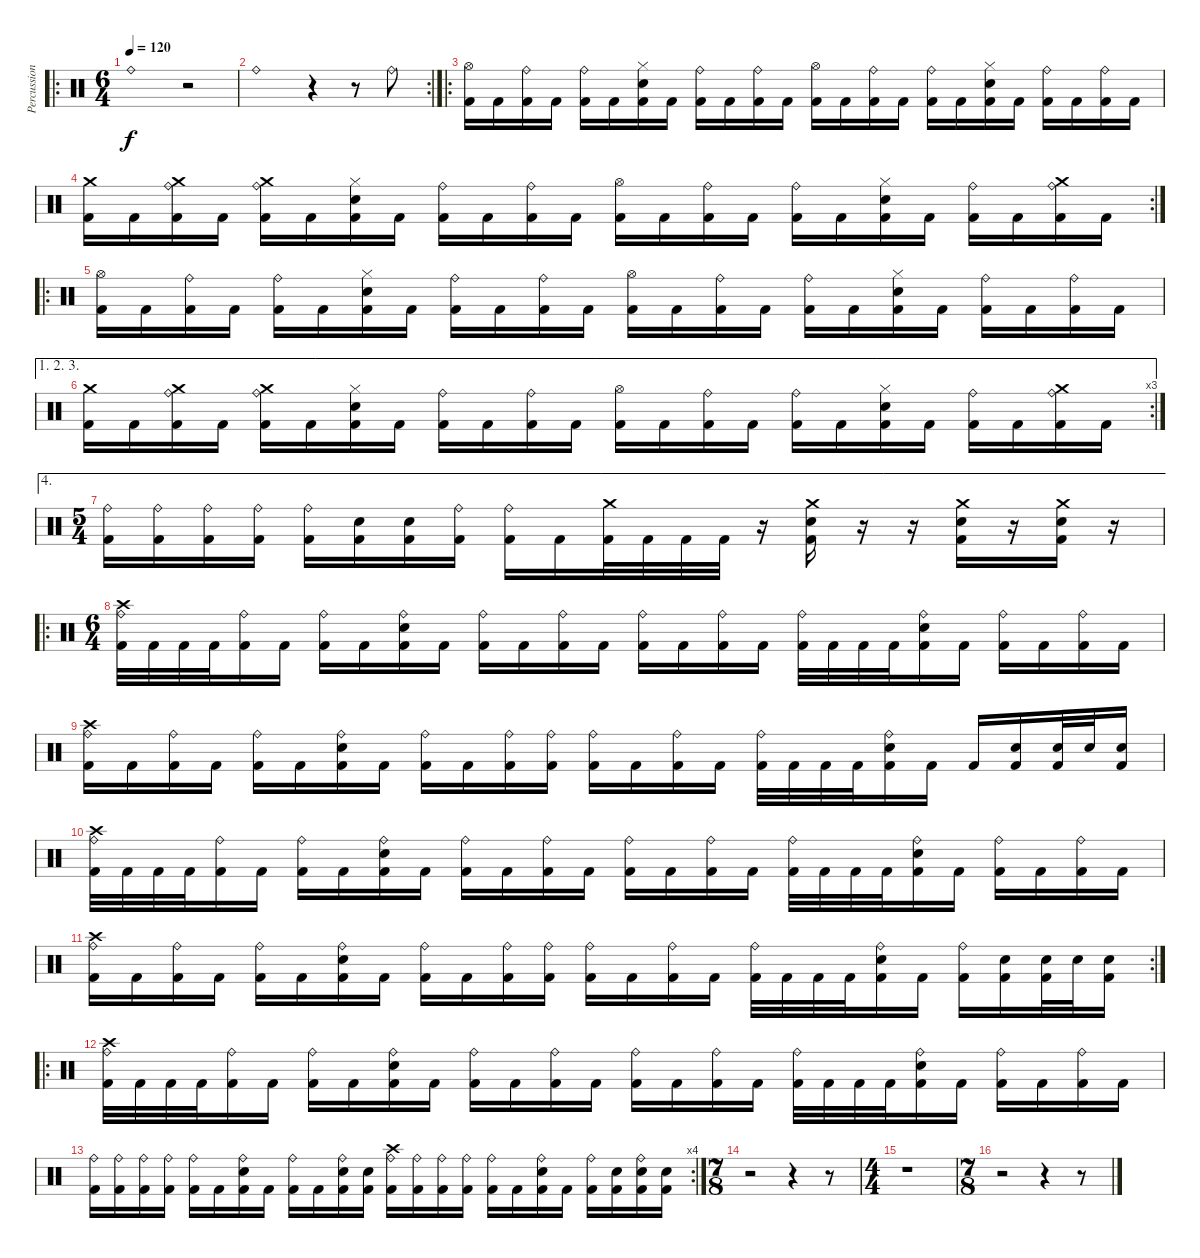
\track ("Percussion" "Percussion") {instrument percussion}
\staff {score}
\articulation defaults
\ro
\ts (6 4)
\tempo 120
\clef neutral
\ks c "Ride (bell)".1{dy f}
r.2 |
\rc 2 "Ride (bell)".1
r.4 r.8 "Ride (bell)".8 |
\ro
("Hi-Hat (open)" "Kick (hit) 2").16 "Kick (hit) 2".16 ("Ride (bell)" "Kick (hit) 2").16 "Kick (hit) 2".16 ("Ride (bell)" "Kick (hit) 2").16 "Kick (hit) 2".16 ("Hi-Hat (closed)" "Snare (hit) 2" "Kick (hit) 2").16 "Kick (hit) 2".16 ("Ride (bell)" "Kick (hit) 2").16 "Kick (hit) 2".16 ("Ride (bell)" "Kick (hit) 2").16 "Kick (hit) 2".16 ("Hi-Hat (open)" "Kick (hit) 2").16 "Kick (hit) 2".16 ("Ride (bell)" "Kick (hit) 2").16 "Kick (hit) 2".16 ("Ride (bell)" "Kick (hit) 2").16 "Kick (hit) 2".16 ("Hi-Hat (closed)" "Snare (hit) 2" "Kick (hit) 2").16 "Kick (hit) 2".16 ("Ride (bell)" "Kick (hit) 2").16 "Kick (hit) 2".16 ("Ride (bell)" "Kick (hit) 2").16 "Kick (hit) 2".16 |
\rc 2
("Crash medium (hit)" "Kick (hit) 2").16 "Kick (hit) 2".16 ("Crash medium (hit)" "Ride (bell)" "Kick (hit) 2").16 "Kick (hit) 2".16 ("Crash medium (hit)" "Ride (bell)" "Kick (hit) 2").16 "Kick (hit) 2".16 ("Hi-Hat (closed)" "Snare (hit) 2" "Kick (hit) 2").16 "Kick (hit) 2".16 ("Ride (bell)" "Kick (hit) 2").16 "Kick (hit) 2".16 ("Ride (bell)" "Kick (hit) 2").16 "Kick (hit) 2".16 ("Hi-Hat (open)" "Kick (hit) 2").16 "Kick (hit) 2".16 ("Ride (bell)" "Kick (hit) 2").16 "Kick (hit) 2".16 ("Ride (bell)" "Kick (hit) 2").16 "Kick (hit) 2".16 ("Hi-Hat (closed)" "Snare (hit) 2" "Kick (hit) 2").16 "Kick (hit) 2".16 ("Ride (bell)" "Kick (hit) 2").16 "Kick (hit) 2".16 ("Crash medium (hit)" "Ride (bell)" "Kick (hit) 2").16 "Kick (hit) 2".16 |
\ro
("Hi-Hat (open)" "Kick (hit) 2").16 "Kick (hit) 2".16 ("Ride (bell)" "Kick (hit) 2").16 "Kick (hit) 2".16 ("Ride (bell)" "Kick (hit) 2").16 "Kick (hit) 2".16 ("Hi-Hat (closed)" "Snare (hit) 2" "Kick (hit) 2").16 "Kick (hit) 2".16 ("Ride (bell)" "Kick (hit) 2").16 "Kick (hit) 2".16 ("Ride (bell)" "Kick (hit) 2").16 "Kick (hit) 2".16 ("Hi-Hat (open)" "Kick (hit) 2").16 "Kick (hit) 2".16 ("Ride (bell)" "Kick (hit) 2").16 "Kick (hit) 2".16 ("Ride (bell)" "Kick (hit) 2").16 "Kick (hit) 2".16 ("Hi-Hat (closed)" "Snare (hit) 2" "Kick (hit) 2").16 "Kick (hit) 2".16 ("Ride (bell)" "Kick (hit) 2").16 "Kick (hit) 2".16 ("Ride (bell)" "Kick (hit) 2").16 "Kick (hit) 2".16 |
\ae (1 2 3)
\rc 3
("Crash medium (hit)" "Kick (hit) 2").16 "Kick (hit) 2".16 ("Crash medium (hit)" "Ride (bell)" "Kick (hit) 2").16 "Kick (hit) 2".16 ("Crash medium (hit)" "Ride (bell)" "Kick (hit) 2").16 "Kick (hit) 2".16 ("Hi-Hat (closed)" "Snare (hit) 2" "Kick (hit) 2").16 "Kick (hit) 2".16 ("Ride (bell)" "Kick (hit) 2").16 "Kick (hit) 2".16 ("Ride (bell)" "Kick (hit) 2").16 "Kick (hit) 2".16 ("Hi-Hat (open)" "Kick (hit) 2").16 "Kick (hit) 2".16 ("Ride (bell)" "Kick (hit) 2").16 "Kick (hit) 2".16 ("Ride (bell)" "Kick (hit) 2").16 "Kick (hit) 2".16 ("Hi-Hat (closed)" "Snare (hit) 2" "Kick (hit) 2").16 "Kick (hit) 2".16 ("Ride (bell)" "Kick (hit) 2").16 "Kick (hit) 2".16 ("Crash medium (hit)" "Ride (bell)" "Kick (hit) 2").16 "Kick (hit) 2".16 |
\ae 4
\ts (5 4)
("Ride (bell)" "Kick (hit) 2").16 ("Ride (bell)" "Kick (hit) 2").16 ("Ride (bell)" "Kick (hit) 2").16 ("Ride (bell)" "Kick (hit) 2").16 ("Ride (bell)" "Kick (hit) 2").16 ("Snare (hit) 2" "Kick (hit) 2").16 ("Snare (hit) 2" "Kick (hit) 2").16 ("Ride (bell)" "Kick (hit) 2").16 ("Ride (bell)" "Kick (hit) 2").16 "Kick (hit) 2".16 ("Crash medium (hit)" "Kick (hit) 2").32 "Kick (hit) 2".32 "Kick (hit) 2".32 "Kick (hit) 2".32 r.16 ("Crash medium (hit)" "Snare (hit) 2" "Kick (hit) 2").16 r.16 r.16 ("Crash medium (hit)" "Snare (hit) 2" "Kick (hit) 2").16 r.16 ("Crash medium (hit)" "Snare (hit) 2" "Kick (hit) 2").16 r.16 |
\ro
\ts (6 4)
("Crash high (hit)" "Ride (bell)" "Kick (hit) 2").32 "Kick (hit) 2".32 "Kick (hit) 2".32 "Kick (hit) 2".32 ("Ride (bell)" "Kick (hit) 2").16 "Kick (hit) 2".16 ("Ride (bell)" "Kick (hit) 2").16 "Kick (hit) 2".16 ("Ride (bell)" "Snare (hit) 2" "Kick (hit) 2").16 "Kick (hit) 2".16 ("Ride (bell)" "Kick (hit) 2").16 "Kick (hit) 2".16 ("Ride (bell)" "Kick (hit) 2").16 "Kick (hit) 2".16 ("Ride (bell)" "Kick (hit) 2").16 "Kick (hit) 2".16 ("Ride (bell)" "Kick (hit) 2").16 "Kick (hit) 2".16 ("Ride (bell)" "Kick (hit) 2").32 "Kick (hit) 2".32 "Kick (hit) 2".32 "Kick (hit) 2".32 ("Ride (bell)" "Snare (hit) 2" "Kick (hit) 2").16 "Kick (hit) 2".16 ("Ride (bell)" "Kick (hit) 2").16 "Kick (hit) 2".16 ("Ride (bell)" "Kick (hit) 2").16 "Kick (hit) 2".16 |
("Crash high (hit)" "Ride (bell)" "Kick (hit) 2").16 "Kick (hit) 2".16 ("Ride (bell)" "Kick (hit) 2").16 "Kick (hit) 2".16 ("Ride (bell)" "Kick (hit) 2").16 "Kick (hit) 2".16 ("Ride (bell)" "Snare (hit) 2" "Kick (hit) 2").16 "Kick (hit) 2".16 ("Ride (bell)" "Kick (hit) 2").16 "Kick (hit) 2".16 ("Ride (bell)" "Kick (hit) 2").16 ("Ride (bell)" "Kick (hit) 2").16 ("Ride (bell)" "Kick (hit) 2").16 "Kick (hit) 2".16 ("Ride (bell)" "Kick (hit) 2").16 "Kick (hit) 2".16 ("Ride (bell)" "Kick (hit) 2").32 "Kick (hit) 2".32 "Kick (hit) 2".32 "Kick (hit) 2".32 ("Ride (bell)" "Snare (hit) 2" "Kick (hit) 2").16 "Kick (hit) 2".16 "Kick (hit) 2".16 ("Snare (hit) 2" "Kick (hit) 2").16 ("Snare (hit) 2" "Kick (hit) 2").32 "Snare (hit) 2".32 ("Snare (hit) 2" "Kick (hit) 2").16 |
("Crash high (hit)" "Ride (bell)" "Kick (hit) 2").32 "Kick (hit) 2".32 "Kick (hit) 2".32 "Kick (hit) 2".32 ("Ride (bell)" "Kick (hit) 2").16 "Kick (hit) 2".16 ("Ride (bell)" "Kick (hit) 2").16 "Kick (hit) 2".16 ("Ride (bell)" "Snare (hit) 2" "Kick (hit) 2").16 "Kick (hit) 2".16 ("Ride (bell)" "Kick (hit) 2").16 "Kick (hit) 2".16 ("Ride (bell)" "Kick (hit) 2").16 "Kick (hit) 2".16 ("Ride (bell)" "Kick (hit) 2").16 "Kick (hit) 2".16 ("Ride (bell)" "Kick (hit) 2").16 "Kick (hit) 2".16 ("Ride (bell)" "Kick (hit) 2").32 "Kick (hit) 2".32 "Kick (hit) 2".32 "Kick (hit) 2".32 ("Ride (bell)" "Snare (hit) 2" "Kick (hit) 2").16 "Kick (hit) 2".16 ("Ride (bell)" "Kick (hit) 2").16 "Kick (hit) 2".16 ("Ride (bell)" "Kick (hit) 2").16 "Kick (hit) 2".16 |
\rc 2
("Crash high (hit)" "Ride (bell)" "Kick (hit) 2").16 "Kick (hit) 2".16 ("Ride (bell)" "Kick (hit) 2").16 "Kick (hit) 2".16 ("Ride (bell)" "Kick (hit) 2").16 "Kick (hit) 2".16 ("Ride (bell)" "Snare (hit) 2" "Kick (hit) 2").16 "Kick (hit) 2".16 ("Ride (bell)" "Kick (hit) 2").16 "Kick (hit) 2".16 ("Ride (bell)" "Kick (hit) 2").16 ("Ride (bell)" "Kick (hit) 2").16 ("Ride (bell)" "Kick (hit) 2").16 "Kick (hit) 2".16 ("Ride (bell)" "Kick (hit) 2").16 "Kick (hit) 2".16 ("Ride (bell)" "Kick (hit) 2").32 "Kick (hit) 2".32 "Kick (hit) 2".32 "Kick (hit) 2".32 ("Ride (bell)" "Snare (hit) 2" "Kick (hit) 2").16 "Kick (hit) 2".16 ("Ride (bell)" "Kick (hit) 2").16 ("Snare (hit) 2" "Kick (hit) 2").16 ("Snare (hit) 2" "Kick (hit) 2").32 "Snare (hit) 2".32 ("Snare (hit) 2" "Kick (hit) 2").16 |
\ro
("Crash high (hit)" "Ride (bell)" "Kick (hit) 2").32 "Kick (hit) 2".32 "Kick (hit) 2".32 "Kick (hit) 2".32 ("Ride (bell)" "Kick (hit) 2").16 "Kick (hit) 2".16 ("Ride (bell)" "Kick (hit) 2").16 "Kick (hit) 2".16 ("Ride (bell)" "Snare (hit) 2" "Kick (hit) 2").16 "Kick (hit) 2".16 ("Ride (bell)" "Kick (hit) 2").16 "Kick (hit) 2".16 ("Ride (bell)" "Kick (hit) 2").16 "Kick (hit) 2".16 ("Ride (bell)" "Kick (hit) 2").16 "Kick (hit) 2".16 ("Ride (bell)" "Kick (hit) 2").16 "Kick (hit) 2".16 ("Ride (bell)" "Kick (hit) 2").32 "Kick (hit) 2".32 "Kick (hit) 2".32 "Kick (hit) 2".32 ("Ride (bell)" "Snare (hit) 2" "Kick (hit) 2").16 "Kick (hit) 2".16 ("Ride (bell)" "Kick (hit) 2").16 "Kick (hit) 2".16 ("Ride (bell)" "Kick (hit) 2").16 "Kick (hit) 2".16 |
\rc 4
("Ride (bell)" "Kick (hit) 2").16 ("Ride (bell)" "Kick (hit) 2").16 ("Ride (bell)" "Kick (hit) 2").16 ("Ride (bell)" "Kick (hit) 2").16 ("Ride (bell)" "Kick (hit) 2").16 "Kick (hit) 2".16 ("Ride (bell)" "Snare (hit) 2" "Kick (hit) 2").16 "Kick (hit) 2".16 ("Ride (bell)" "Kick (hit) 2").16 "Kick (hit) 2".16 ("Ride (bell)" "Snare (hit) 2" "Kick (hit) 2").16 ("Snare (hit) 2" "Kick (hit) 2").16 ("Crash high (hit)" "Ride (bell)" "Kick (hit) 2").16 ("Ride (bell)" "Kick (hit) 2").16 ("Ride (bell)" "Kick (hit) 2").16 ("Ride (bell)" "Kick (hit) 2").16 ("Ride (bell)" "Kick (hit) 2").16 "Kick (hit) 2".16 ("Ride (bell)" "Snare (hit) 2" "Kick (hit) 2").16 "Kick (hit) 2".16 ("Ride (bell)" "Kick (hit) 2").16 ("Snare (hit) 2" "Kick (hit) 2").16 ("Ride (bell)" "Snare (hit) 2" "Kick (hit) 2").16 ("Snare (hit) 2" "Kick (hit) 2").16 |
\ts (7 8)
r.2 r.4 r.8 |
\ts (4 4)
r.1 |
\ts (7 8)
r.2 r.4 r.8
